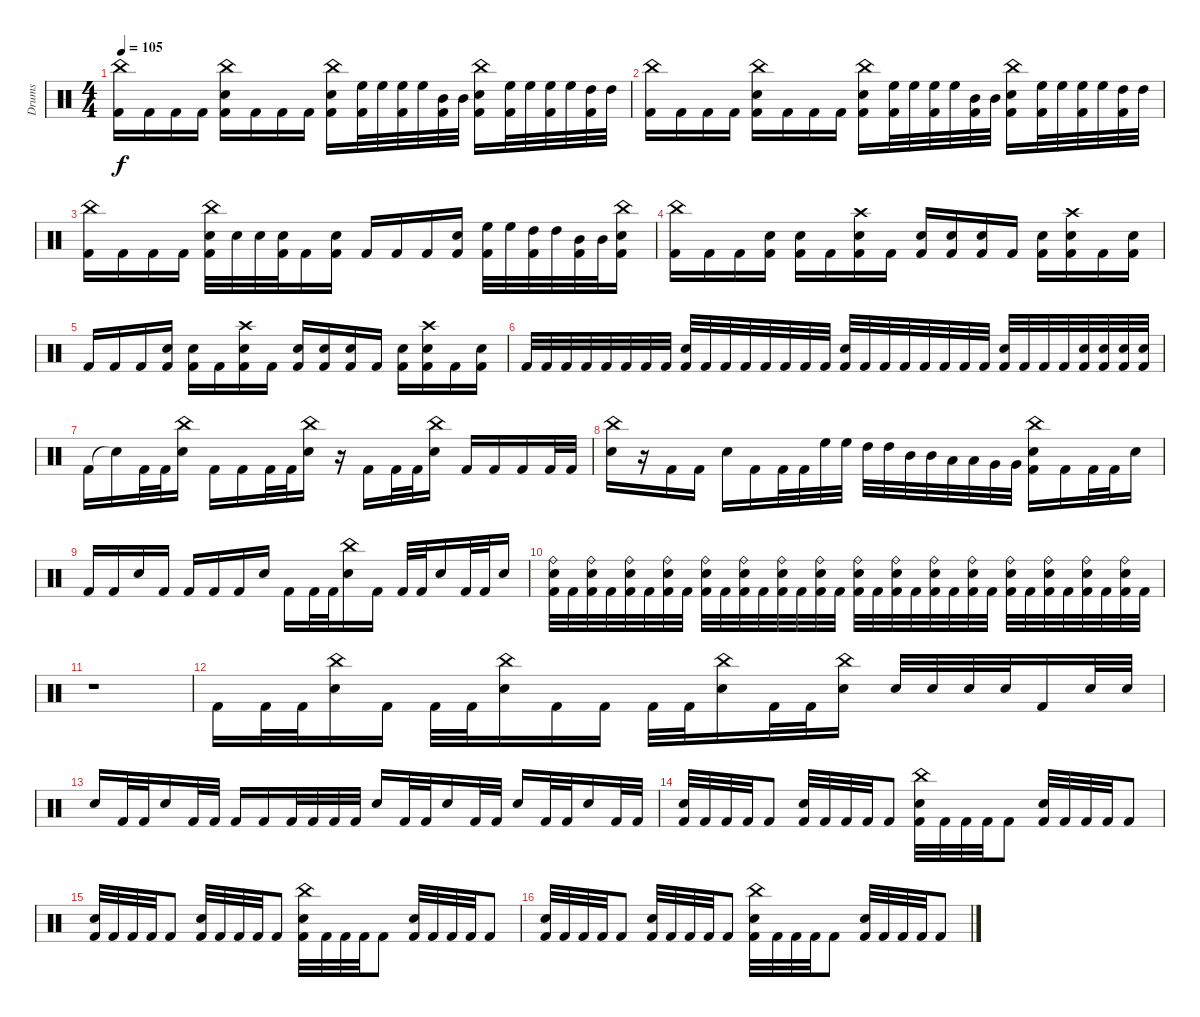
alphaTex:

\track ("Drums" "Drums") {instrument percussion}
\staff {score}
\articulation defaults
\ts (4 4)
\tempo 105
\clef neutral
\ks c
("China (hit)" "Kick (hit) 2").16{dy f} "Kick (hit) 2".16 "Kick (hit) 2".16 "Kick (hit) 2".16 ("China (hit)" "Electric Snare (hit)" "Kick (hit) 2").16 "Kick (hit) 2".16 "Kick (hit) 2".16 "Kick (hit) 2".16 ("China (hit)" "Electric Snare (hit)" "Kick (hit) 2").16 ("High Floor Tom (hit)" "Kick (hit) 2").32 "High Floor Tom (hit)".32 ("High Floor Tom (hit)" "Kick (hit) 2").32 "High Floor Tom (hit)".32 ("Mid Tom (hit)" "Kick (hit) 2").32 "Mid Tom (hit)".32 ("China (hit)" "Electric Snare (hit)" "Kick (hit) 2").16 ("High Floor Tom (hit)" "Kick (hit) 2").32 "High Floor Tom (hit)".32 ("High Floor Tom (hit)" "Kick (hit) 2").32 "High Floor Tom (hit)".32 ("High Tom (hit)" "Kick (hit) 2").32 "High Tom (hit)".32 |
("China (hit)" "Kick (hit) 2").16 "Kick (hit) 2".16 "Kick (hit) 2".16 "Kick (hit) 2".16 ("China (hit)" "Electric Snare (hit)" "Kick (hit) 2").16 "Kick (hit) 2".16 "Kick (hit) 2".16 "Kick (hit) 2".16 ("China (hit)" "Electric Snare (hit)" "Kick (hit) 2").16 ("High Floor Tom (hit)" "Kick (hit) 2").32 "High Floor Tom (hit)".32 ("High Floor Tom (hit)" "Kick (hit) 2").32 "High Floor Tom (hit)".32 ("Mid Tom (hit)" "Kick (hit) 2").32 "Mid Tom (hit)".32 ("China (hit)" "Electric Snare (hit)" "Kick (hit) 2").16 ("High Floor Tom (hit)" "Kick (hit) 2").32 "High Floor Tom (hit)".32 ("High Floor Tom (hit)" "Kick (hit) 2").32 "High Floor Tom (hit)".32 ("High Tom (hit)" "Kick (hit) 2").32 "High Tom (hit)".32 |
("China (hit)" "Kick (hit) 2").16 "Kick (hit) 2".16 "Kick (hit) 2".16 "Kick (hit) 2".16 ("China (hit)" "Electric Snare (hit)" "Kick (hit) 2").32 "Electric Snare (hit)".32 "Electric Snare (hit)".32 ("Electric Snare (hit)" "Kick (hit) 2").32 "Kick (hit) 2".16 ("Electric Snare (hit)" "Kick (hit) 2").16 "Kick (hit) 2".16 "Kick (hit) 2".16 "Kick (hit) 2".16 ("Electric Snare (hit)" "Kick (hit) 2").16 ("High Floor Tom (hit)" "Kick (hit) 2").32 "High Floor Tom (hit)".32 ("High Tom (hit)" "Kick (hit) 2").32 "High Tom (hit)".32 ("Mid Tom (hit)" "Kick (hit) 2").32 "Mid Tom (hit)".32 ("China (hit)" "Electric Snare (hit)" "Kick (hit) 2").16 |
("China (hit)" "Kick (hit) 2").16 "Kick (hit) 2".16 "Kick (hit) 2".16 ("Electric Snare (hit)" "Kick (hit) 2").16 ("Electric Snare (hit)" "Kick (hit) 2").16 "Kick (hit) 2".16 ("Crash high (hit)" "Electric Snare (hit)" "Kick (hit) 2").16 "Kick (hit) 2".16 ("Electric Snare (hit)" "Kick (hit) 2").16 ("Electric Snare (hit)" "Kick (hit) 2").16 ("Electric Snare (hit)" "Kick (hit) 2").16 "Kick (hit) 2".16 ("Electric Snare (hit)" "Kick (hit) 2").16 ("Crash high (hit)" "Electric Snare (hit)" "Kick (hit) 2").16 "Kick (hit) 2".16 ("Electric Snare (hit)" "Kick (hit) 2").16 |
"Kick (hit) 2".16 "Kick (hit) 2".16 "Kick (hit) 2".16 ("Electric Snare (hit)" "Kick (hit) 2").16 ("Electric Snare (hit)" "Kick (hit) 2").16 "Kick (hit) 2".16 ("Crash high (hit)" "Electric Snare (hit)" "Kick (hit) 2").16 "Kick (hit) 2".16 ("Electric Snare (hit)" "Kick (hit) 2").16 ("Electric Snare (hit)" "Kick (hit) 2").16 ("Electric Snare (hit)" "Kick (hit) 2").16 "Kick (hit) 2".16 ("Electric Snare (hit)" "Kick (hit) 2").16 ("Crash high (hit)" "Electric Snare (hit)" "Kick (hit) 2").16 "Kick (hit) 2".16 ("Electric Snare (hit)" "Kick (hit) 2").16 |
"Kick (hit) 2".32 "Kick (hit) 2".32 "Kick (hit) 2".32 "Kick (hit) 2".32 "Kick (hit) 2".32 "Kick (hit) 2".32 "Kick (hit) 2".32 "Kick (hit) 2".32 ("Electric Snare (hit)" "Kick (hit) 2").32 "Kick (hit) 2".32 "Kick (hit) 2".32 "Kick (hit) 2".32 "Kick (hit) 2".32 "Kick (hit) 2".32 "Kick (hit) 2".32 "Kick (hit) 2".32 ("Electric Snare (hit)" "Kick (hit) 2").32 "Kick (hit) 2".32 "Kick (hit) 2".32 "Kick (hit) 2".32 "Kick (hit) 2".32 "Kick (hit) 2".32 "Kick (hit) 2".32 "Kick (hit) 2".32 ("Electric Snare (hit)" "Kick (hit) 2").32 "Kick (hit) 2".32 "Kick (hit) 2".32 "Kick (hit) 2".32 ("Electric Snare (hit)" "Kick (hit) 2").32 ("Electric Snare (hit)" "Kick (hit) 2").32 ("Electric Snare (hit)" "Kick (hit) 2").32 ("Electric Snare (hit)" "Kick (hit) 2").32 |
"Kick (hit) 2".16 "Snare (hit)"{t}.16 "Kick (hit) 2".32 "Kick (hit) 2".32 ("China (hit)" "Electric Snare (hit)").16 "Kick (hit) 2".16 "Kick (hit) 2".16 "Kick (hit) 2".32 "Kick (hit) 2".32 ("China (hit)" "Electric Snare (hit)").16 r.16 "Kick (hit) 2".16 "Kick (hit) 2".32 "Kick (hit) 2".32 ("China (hit)" "Electric Snare (hit)").16 "Kick (hit) 2".16 "Kick (hit) 2".16 "Kick (hit) 2".16 "Kick (hit) 2".32 "Kick (hit) 2".32 |
("China (hit)" "Electric Snare (hit)").16 r.16 "Kick (hit) 2".16 "Kick (hit) 2".16 "Electric Snare (hit)".16 "Kick (hit) 2".16 "Kick (hit) 2".32 "Kick (hit) 2".32 "High Floor Tom (hit)".32 "High Floor Tom (hit)".32 "High Tom (hit)".32 "High Tom (hit)".32 "Mid Tom (hit)".32 "Mid Tom (hit)".32 "Low Tom (hit)".32 "Low Tom (hit)".32 "Very Low Tom (hit)".32 "Very Low Tom (hit)".32 ("China (hit)" "Electric Snare (hit)" "Kick (hit) 2").16 "Kick (hit) 2".16 "Kick (hit) 2".32 "Kick (hit) 2".32 "Electric Snare (hit)".16 |
"Kick (hit) 2".16 "Kick (hit) 2".16 "Electric Snare (hit)".16 "Kick (hit) 2".16 "Kick (hit) 2".16 "Kick (hit) 2".16 "Kick (hit) 2".16 "Electric Snare (hit)".16 "Kick (hit) 2".16 "Kick (hit) 2".32 "Kick (hit) 2".32 ("China (hit)" "Electric Snare (hit)").16 "Kick (hit) 2".16 "Kick (hit) 2".32 "Kick (hit) 2".32 "Electric Snare (hit)".16 "Kick (hit) 2".32 "Kick (hit) 2".32 "Electric Snare (hit)".16 |
("Ride (bell)" "Electric Snare (hit)" "Kick (hit) 2").32 "Kick (hit) 2".32 ("Ride (bell)" "Electric Snare (hit)" "Kick (hit) 2").32 "Kick (hit) 2".32 ("Ride (bell)" "Electric Snare (hit)" "Kick (hit) 2").32 "Kick (hit) 2".32 ("Ride (bell)" "Electric Snare (hit)" "Kick (hit) 2").32 "Kick (hit) 2".32 ("Ride (bell)" "Electric Snare (hit)" "Kick (hit) 2").32 "Kick (hit) 2".32 ("Ride (bell)" "Electric Snare (hit)" "Kick (hit) 2").32 "Kick (hit) 2".32 ("Ride (bell)" "Electric Snare (hit)" "Kick (hit) 2").32 "Kick (hit) 2".32 ("Ride (bell)" "Electric Snare (hit)" "Kick (hit) 2").32 "Kick (hit) 2".32 ("Ride (bell)" "Electric Snare (hit)" "Kick (hit) 2").32 "Kick (hit) 2".32 ("Ride (bell)" "Electric Snare (hit)" "Kick (hit) 2").32 "Kick (hit) 2".32 ("Ride (bell)" "Electric Snare (hit)" "Kick (hit) 2").32 "Kick (hit) 2".32 ("Ride (bell)" "Electric Snare (hit)" "Kick (hit) 2").32 "Kick (hit) 2".32 ("Ride (bell)" "Electric Snare (hit)" "Kick (hit) 2").32 "Kick (hit) 2".32 ("Ride (bell)" "Electric Snare (hit)" "Kick (hit) 2").32 "Kick (hit) 2".32 ("Ride (bell)" "Electric Snare (hit)" "Kick (hit) 2").32 "Kick (hit) 2".32 ("Ride (bell)" "Electric Snare (hit)" "Kick (hit) 2").32 "Kick (hit) 2".32 |
r.1 |
"Kick (hit) 2".16 "Kick (hit) 2".32 "Kick (hit) 2".32 ("China (hit)" "Electric Snare (hit)").16 "Kick (hit) 2".16 "Kick (hit) 2".32 "Kick (hit) 2".32 ("China (hit)" "Electric Snare (hit)").16 "Kick (hit) 2".16 "Kick (hit) 2".16 "Kick (hit) 2".32 "Kick (hit) 2".32 ("China (hit)" "Electric Snare (hit)").16 "Kick (hit) 2".32 "Kick (hit) 2".32 ("China (hit)" "Electric Snare (hit)").16 "Electric Snare (hit)".32 "Electric Snare (hit)".32 "Electric Snare (hit)".32 "Electric Snare (hit)".32 "Kick (hit) 2".16 "Electric Snare (hit)".32 "Electric Snare (hit)".32 |
"Electric Snare (hit)".16 "Kick (hit) 2".32 "Kick (hit) 2".32 "Electric Snare (hit)".16 "Kick (hit) 2".32 "Kick (hit) 2".32 "Kick (hit) 2".16 "Kick (hit) 2".16 "Kick (hit) 2".32 "Kick (hit) 2".32 "Kick (hit) 2".32 "Kick (hit) 2".32 "Electric Snare (hit)".16 "Kick (hit) 2".32 "Kick (hit) 2".32 "Electric Snare (hit)".16 "Kick (hit) 2".32 "Kick (hit) 2".32 "Electric Snare (hit)".16 "Kick (hit) 2".32 "Kick (hit) 2".32 "Electric Snare (hit)".16 "Kick (hit) 2".32 "Kick (hit) 2".32 |
("Electric Snare (hit)" "Kick (hit) 2").32 "Kick (hit) 2".32 "Kick (hit) 2".32 "Kick (hit) 2".32 "Kick (hit) 2".8 ("Electric Snare (hit)" "Kick (hit) 2").32 "Kick (hit) 2".32 "Kick (hit) 2".32 "Kick (hit) 2".32 "Kick (hit) 2".8 ("China (hit)" "Electric Snare (hit)" "Kick (hit) 2").32 "Kick (hit) 2".32 "Kick (hit) 2".32 "Kick (hit) 2".32 "Kick (hit) 2".8 ("Electric Snare (hit)" "Kick (hit) 2").32 "Kick (hit) 2".32 "Kick (hit) 2".32 "Kick (hit) 2".32 "Kick (hit) 2".8 |
("Electric Snare (hit)" "Kick (hit) 2").32 "Kick (hit) 2".32 "Kick (hit) 2".32 "Kick (hit) 2".32 "Kick (hit) 2".8 ("Electric Snare (hit)" "Kick (hit) 2").32 "Kick (hit) 2".32 "Kick (hit) 2".32 "Kick (hit) 2".32 "Kick (hit) 2".8 ("China (hit)" "Electric Snare (hit)" "Kick (hit) 2").32 "Kick (hit) 2".32 "Kick (hit) 2".32 "Kick (hit) 2".32 "Kick (hit) 2".8 ("Electric Snare (hit)" "Kick (hit) 2").32 "Kick (hit) 2".32 "Kick (hit) 2".32 "Kick (hit) 2".32 "Kick (hit) 2".8 |
("Electric Snare (hit)" "Kick (hit) 2").32 "Kick (hit) 2".32 "Kick (hit) 2".32 "Kick (hit) 2".32 "Kick (hit) 2".8 ("Electric Snare (hit)" "Kick (hit) 2").32 "Kick (hit) 2".32 "Kick (hit) 2".32 "Kick (hit) 2".32 "Kick (hit) 2".8 ("China (hit)" "Electric Snare (hit)" "Kick (hit) 2").32 "Kick (hit) 2".32 "Kick (hit) 2".32 "Kick (hit) 2".32 "Kick (hit) 2".8 ("Electric Snare (hit)" "Kick (hit) 2").32 "Kick (hit) 2".32 "Kick (hit) 2".32 "Kick (hit) 2".32 "Kick (hit) 2".8
